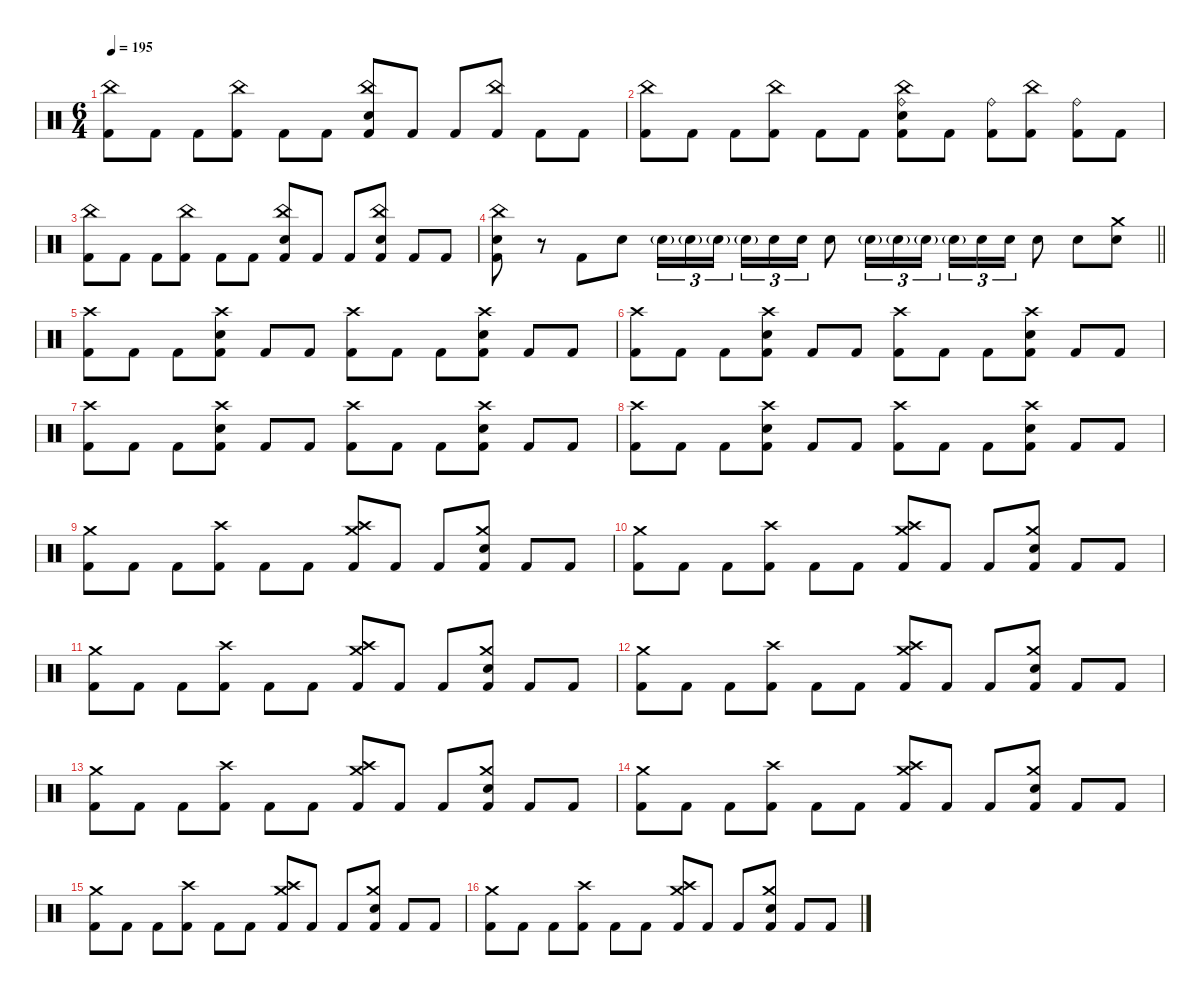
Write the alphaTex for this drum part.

\defaultSystemsLayout 4
\hideDynamics
\bracketExtendMode nobrackets
\singleTrackTrackNamePolicy hidden
\multiTrackTrackNamePolicy hidden
\firstSystemTrackNameMode fullname
\firstSystemTrackNameOrientation horizontal
\otherSystemsTrackNameOrientation horizontal
\track ("Drums" "drm.") {instrument percussion}
\staff {score}
\articulation defaults
\ts (6 4)
\tempo 195
\clef neutral
\ks c
("China (hit)" "Kick (hit) 2").8{dy f beam Down} "Kick (hit) 2".8{beam Down} "Kick (hit) 2".8{beam Down} ("China (hit)" "Kick (hit) 2").8{beam Down} "Kick (hit) 2".8{beam Down} "Kick (hit) 2".8{beam Down} ("China (hit)" "Snare (hit) 2" "Kick (hit) 2").8{beam Up} "Kick (hit) 2".8{beam Up} "Kick (hit) 2".8{beam Up} ("China (hit)" "Kick (hit) 2").8{beam Down} "Kick (hit) 2".8{beam Down} "Kick (hit) 2".8{beam Down} |
("China (hit)" "Kick (hit) 2").8{beam Down} "Kick (hit) 2".8{beam Down} "Kick (hit) 2".8{beam Down} ("China (hit)" "Kick (hit) 2").8{beam Down} "Kick (hit) 2".8{beam Down} "Kick (hit) 2".8{beam Down} ("China (hit)" "Ride (bell)" "Snare (hit) 2" "Kick (hit) 2").8{beam Down} "Kick (hit) 2".8{beam Down} ("Ride (bell)" "Kick (hit) 2").8{beam Down} ("China (hit)" "Kick (hit) 2").8{beam Down} ("Ride (bell)" "Kick (hit) 2").8{beam Down} "Kick (hit) 2".8{beam Down} |
("China (hit)" "Kick (hit) 2").8{beam Down} "Kick (hit) 2".8{beam Down} "Kick (hit) 2".8{beam Down} ("China (hit)" "Kick (hit) 2").8{beam Down} "Kick (hit) 2".8{beam Down} "Kick (hit) 2".8{beam Down} ("China (hit)" "Snare (hit) 2" "Kick (hit) 2").8{beam Up} "Kick (hit) 2".8{beam Up} "Kick (hit) 2".8{beam Up} ("China (hit)" "Snare (hit) 2" "Kick (hit) 2").8{beam Up} "Kick (hit) 2".8{beam Up} "Kick (hit) 2".8{beam Up} |
\barLineRight lightlight
("China (hit)" "Snare (hit) 2" "Kick (hit) 2").8{beam Down} r.8{beam Down} "Kick (hit) 2".8{beam Down} "Snare (hit) 2".8{beam Down} "Snare (hit) 2"{g}.16{tu (3 2) dy mf beam Down} "Snare (hit) 2"{g}.16{tu (3 2) beam Down} "Snare (hit) 2"{g}.16{tu (3 2) beam Down} "Snare (hit) 2"{g}.16{tu (3 2) beam Down} "Snare (hit) 2".16{tu (3 2) dy f beam Down} "Snare (hit) 2".16{tu (3 2) beam Down} "Snare (hit) 2".8{beam Down} "Snare (hit) 2"{g}.16{tu (3 2) dy mf beam Down} "Snare (hit) 2"{g}.16{tu (3 2) beam Down} "Snare (hit) 2"{g}.16{tu (3 2) beam Down} "Snare (hit) 2"{g}.16{tu (3 2) beam Down} "Snare (hit) 2".16{tu (3 2) dy f beam Down} "Snare (hit) 2".16{tu (3 2) beam Down} "Snare (hit) 2".8{beam Down} "Snare (hit) 2".8{beam Down} ("Crash medium (hit)" "Snare (hit) 2").8{beam Down} |
("Crash high (hit)" "Kick (hit) 2").8{beam Down} "Kick (hit) 2".8{beam Down} "Kick (hit) 2".8{beam Down} ("Crash high (hit)" "Snare (hit) 2" "Kick (hit) 2").8{beam Up} "Kick (hit) 2".8{beam Up} "Kick (hit) 2".8{beam Up} ("Crash high (hit)" "Kick (hit) 2").8{beam Down} "Kick (hit) 2".8{beam Down} "Kick (hit) 2".8{beam Down} ("Crash high (hit)" "Snare (hit) 2" "Kick (hit) 2").8{beam Up} "Kick (hit) 2".8{beam Up} "Kick (hit) 2".8{beam Up} |
("Crash high (hit)" "Kick (hit) 2").8{beam Down} "Kick (hit) 2".8{beam Down} "Kick (hit) 2".8{beam Down} ("Crash high (hit)" "Snare (hit) 2" "Kick (hit) 2").8{beam Up} "Kick (hit) 2".8{beam Up} "Kick (hit) 2".8{beam Up} ("Crash high (hit)" "Kick (hit) 2").8{beam Down} "Kick (hit) 2".8{beam Down} "Kick (hit) 2".8{beam Down} ("Crash high (hit)" "Snare (hit) 2" "Kick (hit) 2").8{beam Up} "Kick (hit) 2".8{beam Up} "Kick (hit) 2".8{beam Up} |
("Crash high (hit)" "Kick (hit) 2").8{beam Down} "Kick (hit) 2".8{beam Down} "Kick (hit) 2".8{beam Down} ("Crash high (hit)" "Snare (hit) 2" "Kick (hit) 2").8{beam Up} "Kick (hit) 2".8{beam Up} "Kick (hit) 2".8{beam Up} ("Crash high (hit)" "Kick (hit) 2").8{beam Down} "Kick (hit) 2".8{beam Down} "Kick (hit) 2".8{beam Down} ("Crash high (hit)" "Snare (hit) 2" "Kick (hit) 2").8{beam Up} "Kick (hit) 2".8{beam Up} "Kick (hit) 2".8{beam Up} |
("Crash high (hit)" "Kick (hit) 2").8{beam Down} "Kick (hit) 2".8{beam Down} "Kick (hit) 2".8{beam Down} ("Crash high (hit)" "Snare (hit) 2" "Kick (hit) 2").8{beam Up} "Kick (hit) 2".8{beam Up} "Kick (hit) 2".8{beam Up} ("Crash high (hit)" "Kick (hit) 2").8{beam Down} "Kick (hit) 2".8{beam Down} "Kick (hit) 2".8{beam Down} ("Crash high (hit)" "Snare (hit) 2" "Kick (hit) 2").8{beam Up} "Kick (hit) 2".8{beam Up} "Kick (hit) 2".8{beam Up} |
("Crash medium (hit)" "Kick (hit) 2").8{beam Down} "Kick (hit) 2".8{beam Down} "Kick (hit) 2".8{beam Down} ("Crash high (hit)" "Kick (hit) 2").8{beam Down} "Kick (hit) 2".8{beam Down} "Kick (hit) 2".8{beam Down} ("Crash medium (hit)" "Crash high (hit)" "Kick (hit) 2").8{beam Up} "Kick (hit) 2".8{beam Up} "Kick (hit) 2".8{beam Up} ("Crash medium (hit)" "Snare (hit) 2" "Kick (hit) 2").8{beam Up} "Kick (hit) 2".8{beam Up} "Kick (hit) 2".8{beam Up} |
("Crash medium (hit)" "Kick (hit) 2").8{beam Down} "Kick (hit) 2".8{beam Down} "Kick (hit) 2".8{beam Down} ("Crash high (hit)" "Kick (hit) 2").8{beam Down} "Kick (hit) 2".8{beam Down} "Kick (hit) 2".8{beam Down} ("Crash medium (hit)" "Crash high (hit)" "Kick (hit) 2").8{beam Up} "Kick (hit) 2".8{beam Up} "Kick (hit) 2".8{beam Up} ("Crash medium (hit)" "Snare (hit) 2" "Kick (hit) 2").8{beam Up} "Kick (hit) 2".8{beam Up} "Kick (hit) 2".8{beam Up} |
("Crash medium (hit)" "Kick (hit) 2").8{beam Down} "Kick (hit) 2".8{beam Down} "Kick (hit) 2".8{beam Down} ("Crash high (hit)" "Kick (hit) 2").8{beam Down} "Kick (hit) 2".8{beam Down} "Kick (hit) 2".8{beam Down} ("Crash medium (hit)" "Crash high (hit)" "Kick (hit) 2").8{beam Up} "Kick (hit) 2".8{beam Up} "Kick (hit) 2".8{beam Up} ("Crash medium (hit)" "Snare (hit) 2" "Kick (hit) 2").8{beam Up} "Kick (hit) 2".8{beam Up} "Kick (hit) 2".8{beam Up} |
("Crash medium (hit)" "Kick (hit) 2").8{beam Down} "Kick (hit) 2".8{beam Down} "Kick (hit) 2".8{beam Down} ("Crash high (hit)" "Kick (hit) 2").8{beam Down} "Kick (hit) 2".8{beam Down} "Kick (hit) 2".8{beam Down} ("Crash medium (hit)" "Crash high (hit)" "Kick (hit) 2").8{beam Up} "Kick (hit) 2".8{beam Up} "Kick (hit) 2".8{beam Up} ("Crash medium (hit)" "Snare (hit) 2" "Kick (hit) 2").8{beam Up} "Kick (hit) 2".8{beam Up} "Kick (hit) 2".8{beam Up} |
("Crash medium (hit)" "Kick (hit) 2").8{beam Down} "Kick (hit) 2".8{beam Down} "Kick (hit) 2".8{beam Down} ("Crash high (hit)" "Kick (hit) 2").8{beam Down} "Kick (hit) 2".8{beam Down} "Kick (hit) 2".8{beam Down} ("Crash medium (hit)" "Crash high (hit)" "Kick (hit) 2").8{beam Up} "Kick (hit) 2".8{beam Up} "Kick (hit) 2".8{beam Up} ("Crash medium (hit)" "Snare (hit) 2" "Kick (hit) 2").8{beam Up} "Kick (hit) 2".8{beam Up} "Kick (hit) 2".8{beam Up} |
("Crash medium (hit)" "Kick (hit) 2").8{beam Down} "Kick (hit) 2".8{beam Down} "Kick (hit) 2".8{beam Down} ("Crash high (hit)" "Kick (hit) 2").8{beam Down} "Kick (hit) 2".8{beam Down} "Kick (hit) 2".8{beam Down} ("Crash medium (hit)" "Crash high (hit)" "Kick (hit) 2").8{beam Up} "Kick (hit) 2".8{beam Up} "Kick (hit) 2".8{beam Up} ("Crash medium (hit)" "Snare (hit) 2" "Kick (hit) 2").8{beam Up} "Kick (hit) 2".8{beam Up} "Kick (hit) 2".8{beam Up} |
("Crash medium (hit)" "Kick (hit) 2").8{beam Down} "Kick (hit) 2".8{beam Down} "Kick (hit) 2".8{beam Down} ("Crash high (hit)" "Kick (hit) 2").8{beam Down} "Kick (hit) 2".8{beam Down} "Kick (hit) 2".8{beam Down} ("Crash medium (hit)" "Crash high (hit)" "Kick (hit) 2").8{beam Up} "Kick (hit) 2".8{beam Up} "Kick (hit) 2".8{beam Up} ("Crash medium (hit)" "Snare (hit) 2" "Kick (hit) 2").8{beam Up} "Kick (hit) 2".8{beam Up} "Kick (hit) 2".8{beam Up} |
("Crash medium (hit)" "Kick (hit) 2").8{beam Down} "Kick (hit) 2".8{beam Down} "Kick (hit) 2".8{beam Down} ("Crash high (hit)" "Kick (hit) 2").8{beam Down} "Kick (hit) 2".8{beam Down} "Kick (hit) 2".8{beam Down} ("Crash medium (hit)" "Crash high (hit)" "Kick (hit) 2").8{beam Up} "Kick (hit) 2".8{beam Up} "Kick (hit) 2".8{beam Up} ("Crash medium (hit)" "Snare (hit) 2" "Kick (hit) 2").8{beam Up} "Kick (hit) 2".8{beam Up} "Kick (hit) 2".8{beam Up}
